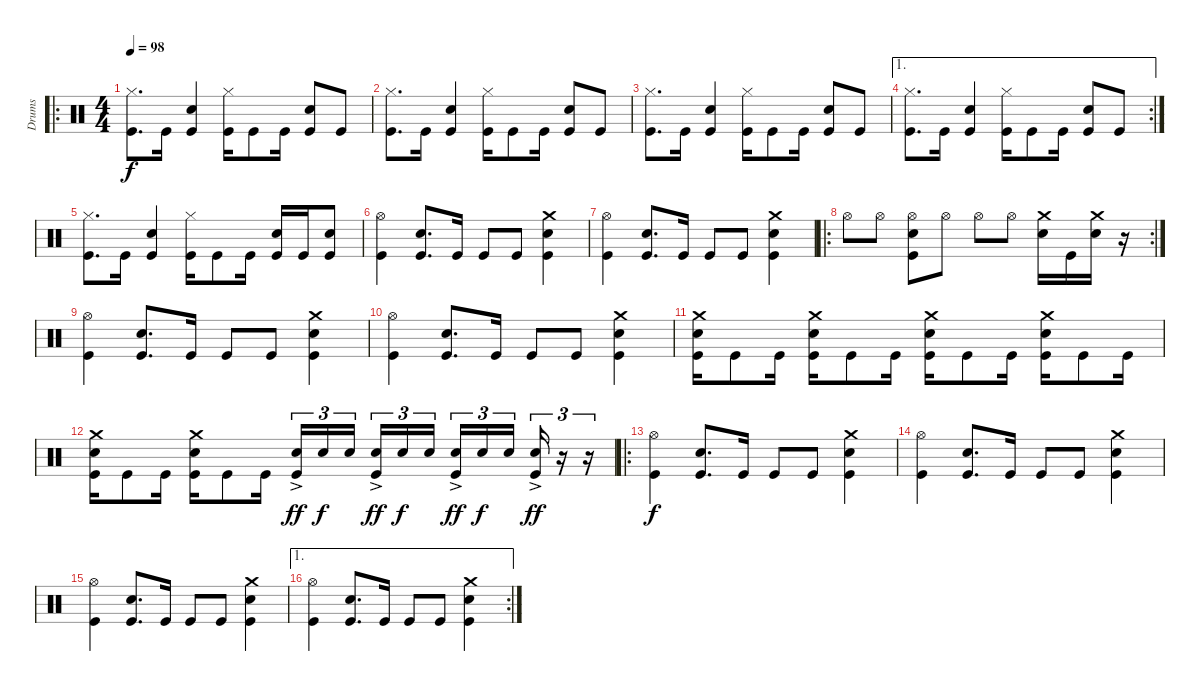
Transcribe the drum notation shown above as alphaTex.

\track ("Drums" "Drums") {instrument percussion}
\staff {score}
\articulation defaults
\ro
\ts (4 4)
\tempo 98
\clef neutral
\ks c
("Hi-Hat (closed)" "Kick (hit)").8{d dy f} "Kick (hit)".16 ("Snare (hit) 2" "Kick (hit)").4 ("Hi-Hat (closed)" "Kick (hit)").16 "Kick (hit)".8 "Kick (hit)".16 ("Snare (hit) 2" "Kick (hit)").8 "Kick (hit)".8 |
("Hi-Hat (closed)" "Kick (hit)").8{d} "Kick (hit)".16 ("Snare (hit) 2" "Kick (hit)").4 ("Hi-Hat (closed)" "Kick (hit)").16 "Kick (hit)".8 "Kick (hit)".16 ("Snare (hit) 2" "Kick (hit)").8 "Kick (hit)".8 |
("Hi-Hat (closed)" "Kick (hit)").8{d} "Kick (hit)".16 ("Snare (hit) 2" "Kick (hit)").4 ("Hi-Hat (closed)" "Kick (hit)").16 "Kick (hit)".8 "Kick (hit)".16 ("Snare (hit) 2" "Kick (hit)").8 "Kick (hit)".8 |
\ae 1
\rc 2
("Hi-Hat (closed)" "Kick (hit)").8{d} "Kick (hit)".16 ("Snare (hit) 2" "Kick (hit)").4 ("Hi-Hat (closed)" "Kick (hit)").16 "Kick (hit)".8 "Kick (hit)".16 ("Snare (hit) 2" "Kick (hit)").8 "Kick (hit)".8 |
("Hi-Hat (closed)" "Kick (hit)").8{d} "Kick (hit)".16 ("Snare (hit) 2" "Kick (hit)").4 ("Hi-Hat (closed)" "Kick (hit)").16 "Kick (hit)".8 "Kick (hit)".16 ("Snare (hit) 2" "Kick (hit)").16 "Kick (hit)".16 ("Snare (hit) 2" "Kick (hit)").8 |
("Hi-Hat (open)" "Kick (hit)").4 ("Snare (hit) 2" "Kick (hit)").8{d} "Kick (hit)".16 "Kick (hit)".8 "Kick (hit)".8 ("Crash medium (hit)" "Snare (hit) 2" "Kick (hit)").4 |
("Hi-Hat (open)" "Kick (hit)").4 ("Snare (hit) 2" "Kick (hit)").8{d} "Kick (hit)".16 "Kick (hit)".8 "Kick (hit)".8 ("Crash medium (hit)" "Snare (hit) 2" "Kick (hit)").4 |
\ro
\rc 2 "Hi-Hat (open)".8 "Hi-Hat (open)".8
("Snare (hit) 2" "Hi-Hat (open)" "Kick (hit)").8 "Hi-Hat (open)".8 "Hi-Hat (open)".8 "Hi-Hat (open)".8 ("Crash medium (hit)" "Snare (hit) 2").16 "Kick (hit)".16 ("Crash medium (hit)" "Snare (hit) 2").16 r.16 |
("Hi-Hat (open)" "Kick (hit)").4 ("Snare (hit) 2" "Kick (hit)").8{d} "Kick (hit)".16 "Kick (hit)".8 "Kick (hit)".8 ("Crash medium (hit)" "Snare (hit) 2" "Kick (hit)").4 |
("Hi-Hat (open)" "Kick (hit)").4 ("Snare (hit) 2" "Kick (hit)").8{d} "Kick (hit)".16 "Kick (hit)".8 "Kick (hit)".8 ("Crash medium (hit)" "Snare (hit) 2" "Kick (hit)").4 |
("Crash medium (hit)" "Snare (hit) 2" "Kick (hit)").16 "Kick (hit)".8 "Kick (hit)".16 ("Crash medium (hit)" "Snare (hit) 2" "Kick (hit)").16 "Kick (hit)".8 "Kick (hit)".16 ("Crash medium (hit)" "Snare (hit) 2" "Kick (hit)").16 "Kick (hit)".8 "Kick (hit)".16 ("Crash medium (hit)" "Snare (hit) 2" "Kick (hit)").16 "Kick (hit)".8 "Kick (hit)".16 |
("Crash medium (hit)" "Snare (hit) 2" "Kick (hit)").16 "Kick (hit)".8 "Kick (hit)".16 ("Crash medium (hit)" "Snare (hit) 2" "Kick (hit)").16 "Kick (hit)".8 "Kick (hit)".16 ("Snare (hit) 2"{ac} "Kick (hit)").16{tu (3 2) dy ff} "Snare (hit) 2".16{tu (3 2) dy f} "Snare (hit) 2".16{tu (3 2) beam splitsecondary} ("Snare (hit) 2"{ac} "Kick (hit)").16{tu (3 2) dy ff} "Snare (hit) 2".16{tu (3 2) dy f} "Snare (hit) 2".16{tu (3 2)} ("Snare (hit) 2"{ac} "Kick (hit)").16{tu (3 2) dy ff} "Snare (hit) 2".16{tu (3 2) dy f} "Snare (hit) 2".16{tu (3 2) beam splitsecondary} ("Snare (hit) 2"{ac} "Kick (hit)").16{tu (3 2) dy ff} r.16{tu (3 2)} r.16{tu (3 2)} |
\ro
("Hi-Hat (open)" "Kick (hit)").4{dy f} ("Snare (hit) 2" "Kick (hit)").8{d} "Kick (hit)".16 "Kick (hit)".8 "Kick (hit)".8 ("Crash medium (hit)" "Snare (hit) 2" "Kick (hit)").4 |
("Hi-Hat (open)" "Kick (hit)").4 ("Snare (hit) 2" "Kick (hit)").8{d} "Kick (hit)".16 "Kick (hit)".8 "Kick (hit)".8 ("Crash medium (hit)" "Snare (hit) 2" "Kick (hit)").4 |
("Hi-Hat (open)" "Kick (hit)").4 ("Snare (hit) 2" "Kick (hit)").8{d} "Kick (hit)".16 "Kick (hit)".8 "Kick (hit)".8 ("Crash medium (hit)" "Snare (hit) 2" "Kick (hit)").4 |
\ae 1
\rc 2
("Hi-Hat (open)" "Kick (hit)").4 ("Snare (hit) 2" "Kick (hit)").8{d} "Kick (hit)".16 "Kick (hit)".8 "Kick (hit)".8 ("Crash medium (hit)" "Snare (hit) 2" "Kick (hit)").4
